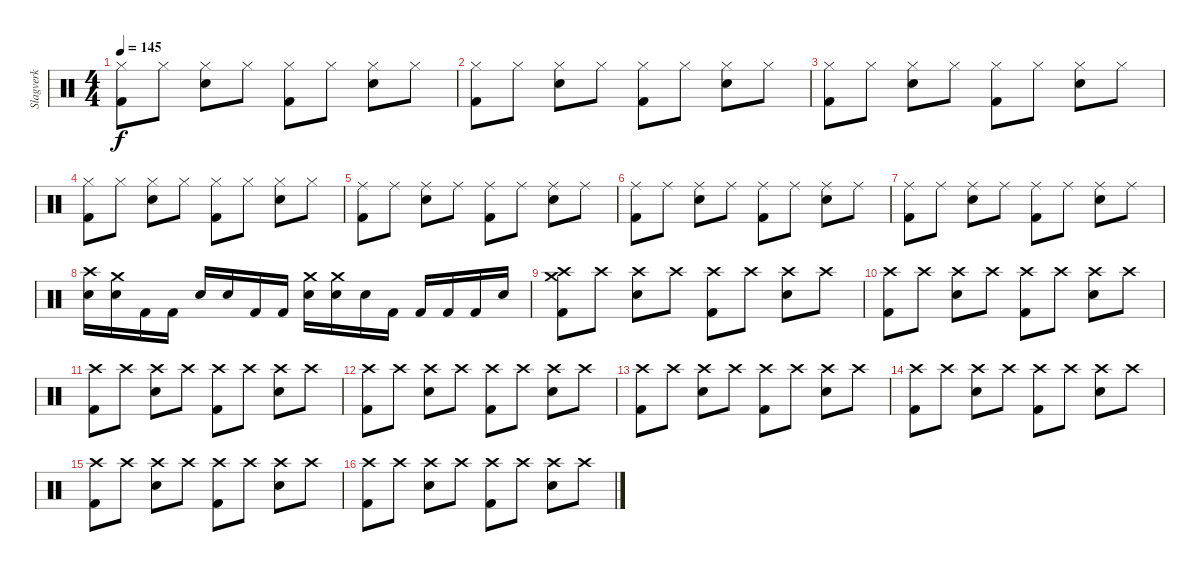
\track ("Slagverk" "Slagverk") {instrument percussion}
\staff {score}
\articulation defaults
\ts (4 4)
\tempo 145
\clef neutral
\ks c
("Hi-Hat (closed)" "Kick (hit) 2").8{dy f} "Hi-Hat (closed)".8 ("Hi-Hat (closed)" "Snare (hit) 2").8 "Hi-Hat (closed)".8 ("Hi-Hat (closed)" "Kick (hit) 2").8 "Hi-Hat (closed)".8 ("Hi-Hat (closed)" "Snare (hit) 2").8 "Hi-Hat (closed)".8 |
("Hi-Hat (closed)" "Kick (hit) 2").8 "Hi-Hat (closed)".8 ("Hi-Hat (closed)" "Snare (hit) 2").8 "Hi-Hat (closed)".8 ("Hi-Hat (closed)" "Kick (hit) 2").8 "Hi-Hat (closed)".8 ("Hi-Hat (closed)" "Snare (hit) 2").8 "Hi-Hat (closed)".8 |
("Hi-Hat (closed)" "Kick (hit) 2").8 "Hi-Hat (closed)".8 ("Hi-Hat (closed)" "Snare (hit) 2").8 "Hi-Hat (closed)".8 ("Hi-Hat (closed)" "Kick (hit) 2").8 "Hi-Hat (closed)".8 ("Hi-Hat (closed)" "Snare (hit) 2").8 "Hi-Hat (closed)".8 |
("Hi-Hat (closed)" "Kick (hit) 2").8 "Hi-Hat (closed)".8 ("Hi-Hat (closed)" "Snare (hit) 2").8 "Hi-Hat (closed)".8 ("Hi-Hat (closed)" "Kick (hit) 2").8 "Hi-Hat (closed)".8 ("Hi-Hat (closed)" "Snare (hit) 2").8 "Hi-Hat (closed)".8 |
("Ride (middle)" "Kick (hit) 2").8 "Ride (middle)".8 ("Ride (middle)" "Snare (hit) 2").8 "Ride (middle)".8 ("Ride (middle)" "Kick (hit) 2").8 "Ride (middle)".8 ("Ride (middle)" "Snare (hit) 2").8 "Ride (middle)".8 |
("Ride (middle)" "Kick (hit) 2").8 "Ride (middle)".8 ("Ride (middle)" "Snare (hit) 2").8 "Ride (middle)".8 ("Ride (middle)" "Kick (hit) 2").8 "Ride (middle)".8 ("Ride (middle)" "Snare (hit) 2").8 "Ride (middle)".8 |
("Ride (middle)" "Kick (hit) 2").8 "Ride (middle)".8 ("Ride (middle)" "Snare (hit) 2").8 "Ride (middle)".8 ("Ride (middle)" "Kick (hit) 2").8 "Ride (middle)".8 ("Ride (middle)" "Snare (hit) 2").8 "Ride (middle)".8 |
("Crash high (hit)" "Snare (hit) 2").16 ("Crash medium (hit)" "Snare (hit) 2").16 "Kick (hit) 2".16 "Kick (hit) 2".16 "Snare (hit) 2".16 "Snare (hit) 2".16 "Kick (hit) 2".16 "Kick (hit) 2".16 ("Crash medium (hit)" "Snare (hit) 2").16 ("Crash medium (hit)" "Snare (hit) 2").16 "Snare (hit) 2".16 "Kick (hit) 2".16 "Kick (hit) 2".16 "Kick (hit) 2".16 "Kick (hit) 2".16 "Snare (hit) 2".16 |
("Crash high (hit)" "Crash medium (hit)" "Kick (hit) 2").8 "Crash high (hit)".8 ("Crash high (hit)" "Snare (hit) 2").8 "Crash high (hit)".8 ("Crash high (hit)" "Kick (hit) 2").8 "Crash high (hit)".8 ("Crash high (hit)" "Snare (hit) 2").8 "Crash high (hit)".8 |
("Crash high (hit)" "Kick (hit) 2").8 "Crash high (hit)".8 ("Crash high (hit)" "Snare (hit) 2").8 "Crash high (hit)".8 ("Crash high (hit)" "Kick (hit) 2").8 "Crash high (hit)".8 ("Crash high (hit)" "Snare (hit) 2").8 "Crash high (hit)".8 |
("Crash high (hit)" "Kick (hit) 2").8 "Crash high (hit)".8 ("Crash high (hit)" "Snare (hit) 2").8 "Crash high (hit)".8 ("Crash high (hit)" "Kick (hit) 2").8 "Crash high (hit)".8 ("Crash high (hit)" "Snare (hit) 2").8 "Crash high (hit)".8 |
("Crash high (hit)" "Kick (hit) 2").8 "Crash high (hit)".8 ("Crash high (hit)" "Snare (hit) 2").8 "Crash high (hit)".8 ("Crash high (hit)" "Kick (hit) 2").8 "Crash high (hit)".8 ("Crash high (hit)" "Snare (hit) 2").8 "Crash high (hit)".8 |
("Crash high (hit)" "Kick (hit) 2").8 "Crash high (hit)".8 ("Crash high (hit)" "Snare (hit) 2").8 "Crash high (hit)".8 ("Crash high (hit)" "Kick (hit) 2").8 "Crash high (hit)".8 ("Crash high (hit)" "Snare (hit) 2").8 "Crash high (hit)".8 |
("Crash high (hit)" "Kick (hit) 2").8 "Crash high (hit)".8 ("Crash high (hit)" "Snare (hit) 2").8 "Crash high (hit)".8 ("Crash high (hit)" "Kick (hit) 2").8 "Crash high (hit)".8 ("Crash high (hit)" "Snare (hit) 2").8 "Crash high (hit)".8 |
("Crash high (hit)" "Kick (hit) 2").8 "Crash high (hit)".8 ("Crash high (hit)" "Snare (hit) 2").8 "Crash high (hit)".8 ("Crash high (hit)" "Kick (hit) 2").8 "Crash high (hit)".8 ("Crash high (hit)" "Snare (hit) 2").8 "Crash high (hit)".8 |
("Crash high (hit)" "Kick (hit) 2").8 "Crash high (hit)".8 ("Crash high (hit)" "Snare (hit) 2").8 "Crash high (hit)".8 ("Crash high (hit)" "Kick (hit) 2").8 "Crash high (hit)".8 ("Crash high (hit)" "Snare (hit) 2").8 "Crash high (hit)".8
